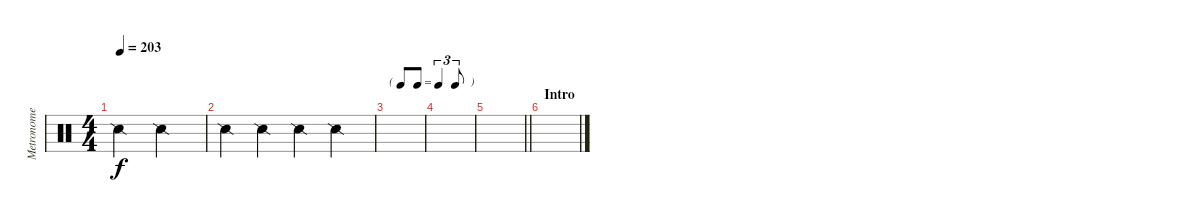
\track ("Metronome" "Metronome") {instrument percussion}
\staff {score}
\articulation defaults
\ts (4 4)
\tempo 203
\clef neutral
\ks c "Snare (side stick) 2".2{dy f} "Snare (side stick) 2".2
|
"Snare (side stick) 2".4 "Snare (side stick) 2".4 "Snare (side stick) 2".4 "Snare (side stick) 2".4 |
\tf triplet8th
|
|
\barLineRight lightlight
|
\section ("" "Intro")
